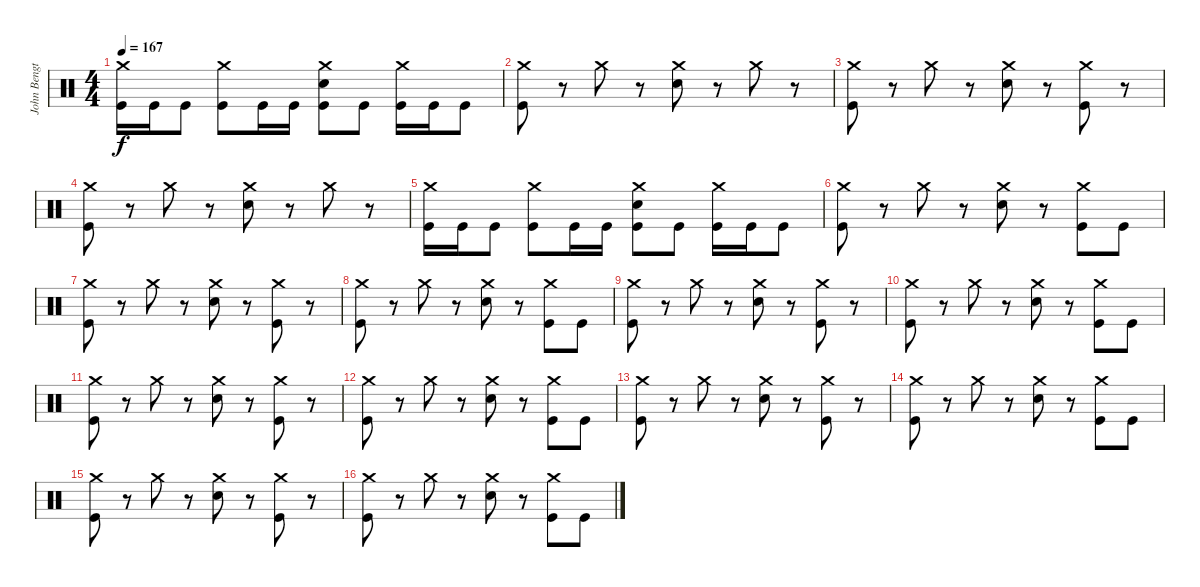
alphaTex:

\track ("John Bengtsson" "John Bengt") {instrument percussion}
\staff {score}
\articulation defaults
\ts (4 4)
\tempo 167
\clef neutral
\ks c
("Crash medium (hit)" "Kick (hit)").16{dy f} "Kick (hit)".16 "Kick (hit)".8 ("Crash medium (hit)" "Kick (hit)").8 "Kick (hit)".16 "Kick (hit)".16 ("Crash medium (hit)" "Snare (hit) 2" "Kick (hit)").8 "Kick (hit)".8 ("Crash medium (hit)" "Kick (hit)").16 "Kick (hit)".16 "Kick (hit)".8 |
("Crash medium (hit)" "Kick (hit)").8 r.8 "Crash medium (hit)".8 r.8 ("Crash medium (hit)" "Snare (hit) 2").8 r.8 "Crash medium (hit)".8 r.8 |
("Crash medium (hit)" "Kick (hit)").8 r.8 "Crash medium (hit)".8 r.8 ("Crash medium (hit)" "Snare (hit) 2").8 r.8 ("Crash medium (hit)" "Kick (hit)").8 r.8 |
("Crash medium (hit)" "Kick (hit)").8 r.8 "Crash medium (hit)".8 r.8 ("Crash medium (hit)" "Snare (hit) 2").8 r.8 "Crash medium (hit)".8 r.8 |
("Crash medium (hit)" "Kick (hit)").16 "Kick (hit)".16 "Kick (hit)".8 ("Crash medium (hit)" "Kick (hit)").8 "Kick (hit)".16 "Kick (hit)".16 ("Crash medium (hit)" "Snare (hit) 2" "Kick (hit)").8 "Kick (hit)".8 ("Crash medium (hit)" "Kick (hit)").16 "Kick (hit)".16 "Kick (hit)".8 |
("Crash medium (hit)" "Kick (hit)").8 r.8 "Crash medium (hit)".8 r.8 ("Crash medium (hit)" "Snare (hit) 2").8 r.8 ("Crash medium (hit)" "Kick (hit)").8 "Kick (hit)".8 |
("Crash medium (hit)" "Kick (hit)").8 r.8 "Crash medium (hit)".8 r.8 ("Crash medium (hit)" "Snare (hit) 2").8 r.8 ("Crash medium (hit)" "Kick (hit)").8 r.8 |
("Crash medium (hit)" "Kick (hit)").8 r.8 "Crash medium (hit)".8 r.8 ("Crash medium (hit)" "Snare (hit) 2").8 r.8 ("Crash medium (hit)" "Kick (hit)").8 "Kick (hit)".8 |
("Crash medium (hit)" "Kick (hit)").8 r.8 "Crash medium (hit)".8 r.8 ("Crash medium (hit)" "Snare (hit) 2").8 r.8 ("Crash medium (hit)" "Kick (hit)").8 r.8 |
("Crash medium (hit)" "Kick (hit)").8 r.8 "Crash medium (hit)".8 r.8 ("Crash medium (hit)" "Snare (hit) 2").8 r.8 ("Crash medium (hit)" "Kick (hit)").8 "Kick (hit)".8 |
("Crash medium (hit)" "Kick (hit)").8 r.8 "Crash medium (hit)".8 r.8 ("Crash medium (hit)" "Snare (hit) 2").8 r.8 ("Crash medium (hit)" "Kick (hit)").8 r.8 |
("Crash medium (hit)" "Kick (hit)").8 r.8 "Crash medium (hit)".8 r.8 ("Crash medium (hit)" "Snare (hit) 2").8 r.8 ("Crash medium (hit)" "Kick (hit)").8 "Kick (hit)".8 |
("Crash medium (hit)" "Kick (hit)").8 r.8 "Crash medium (hit)".8 r.8 ("Crash medium (hit)" "Snare (hit) 2").8 r.8 ("Crash medium (hit)" "Kick (hit)").8 r.8 |
("Crash medium (hit)" "Kick (hit)").8 r.8 "Crash medium (hit)".8 r.8 ("Crash medium (hit)" "Snare (hit) 2").8 r.8 ("Crash medium (hit)" "Kick (hit)").8 "Kick (hit)".8 |
("Crash medium (hit)" "Kick (hit)").8 r.8 "Crash medium (hit)".8 r.8 ("Crash medium (hit)" "Snare (hit) 2").8 r.8 ("Crash medium (hit)" "Kick (hit)").8 r.8 |
("Crash medium (hit)" "Kick (hit)").8 r.8 "Crash medium (hit)".8 r.8 ("Crash medium (hit)" "Snare (hit) 2").8 r.8 ("Crash medium (hit)" "Kick (hit)").8 "Kick (hit)".8
